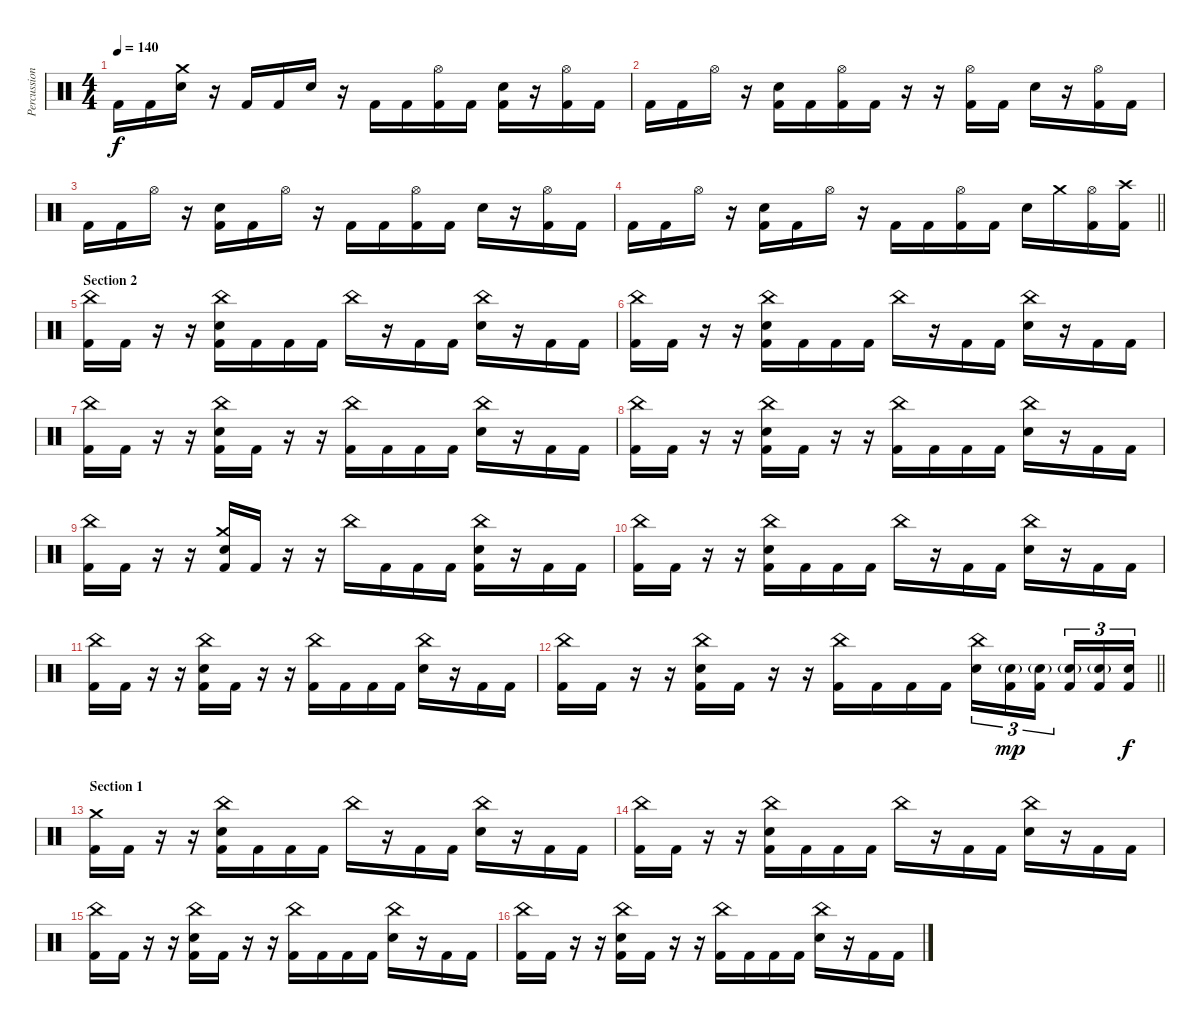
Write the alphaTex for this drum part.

\track ("Percussion" "Percussion") {instrument percussion}
\staff {score}
\articulation defaults
\ts (4 4)
\tempo 140
\clef neutral
\ks c "Kick (hit) 2".16{dy f} "Kick (hit) 2".16
("Crash medium (hit)" "Electric Snare (hit)").16 r.16 "Kick (hit) 2".16 "Kick (hit) 2".16 "Electric Snare (hit)".16 r.16 "Kick (hit) 2".16 "Kick (hit) 2".16 ("Hi-Hat (open)" "Kick (hit) 2").16 "Kick (hit) 2".16 ("Electric Snare (hit)" "Kick (hit) 2").16 r.16 ("Hi-Hat (open)" "Kick (hit) 2").16 "Kick (hit) 2".16 |
"Kick (hit) 2".16 "Kick (hit) 2".16 "Hi-Hat (open)".16 r.16 ("Electric Snare (hit)" "Kick (hit) 2").16 "Kick (hit) 2".16 ("Hi-Hat (open)" "Kick (hit) 2").16 "Kick (hit) 2".16 r.16 r.16 ("Hi-Hat (open)" "Kick (hit) 2").16 "Kick (hit) 2".16 "Electric Snare (hit)".16 r.16 ("Hi-Hat (open)" "Kick (hit) 2").16 "Kick (hit) 2".16 |
"Kick (hit) 2".16 "Kick (hit) 2".16 "Hi-Hat (open)".16 r.16 ("Electric Snare (hit)" "Kick (hit) 2").16 "Kick (hit) 2".16 "Hi-Hat (open)".16 r.16 "Kick (hit) 2".16 "Kick (hit) 2".16 ("Hi-Hat (open)" "Kick (hit) 2").16 "Kick (hit) 2".16 "Electric Snare (hit)".16 r.16 ("Hi-Hat (open)" "Kick (hit) 2").16 "Kick (hit) 2".16 |
\barLineRight lightlight "Kick (hit) 2".16 "Kick (hit) 2".16 "Hi-Hat (open)".16
r.16 ("Electric Snare (hit)" "Kick (hit) 2").16 "Kick (hit) 2".16 "Hi-Hat (open)".16 r.16 "Kick (hit) 2".16 "Kick (hit) 2".16 ("Hi-Hat (open)" "Kick (hit) 2").16 "Kick (hit) 2".16 "Electric Snare (hit)".16 "Crash medium (hit)".16 ("Hi-Hat (open)" "Kick (hit) 2").16 ("Crash high (hit)" "Kick (hit) 2").16 |
\section ("" "Section 2")
("China (hit)" "Kick (hit) 2").16 "Kick (hit) 2".16 r.16 r.16 ("China (hit)" "Electric Snare (hit)" "Kick (hit) 2").16 "Kick (hit) 2".16 "Kick (hit) 2".16 "Kick (hit) 2".16 "China (hit)".16 r.16 "Kick (hit) 2".16 "Kick (hit) 2".16 ("China (hit)" "Electric Snare (hit)").16 r.16 "Kick (hit) 2".16 "Kick (hit) 2".16 |
("China (hit)" "Kick (hit) 2").16 "Kick (hit) 2".16 r.16 r.16 ("China (hit)" "Electric Snare (hit)" "Kick (hit) 2").16 "Kick (hit) 2".16 "Kick (hit) 2".16 "Kick (hit) 2".16 "China (hit)".16 r.16 "Kick (hit) 2".16 "Kick (hit) 2".16 ("China (hit)" "Electric Snare (hit)").16 r.16 "Kick (hit) 2".16 "Kick (hit) 2".16 |
("China (hit)" "Kick (hit) 2").16 "Kick (hit) 2".16 r.16 r.16 ("China (hit)" "Electric Snare (hit)" "Kick (hit) 2").16 "Kick (hit) 2".16 r.16 r.16 ("China (hit)" "Kick (hit) 2").16 "Kick (hit) 2".16 "Kick (hit) 2".16 "Kick (hit) 2".16 ("China (hit)" "Electric Snare (hit)").16 r.16 "Kick (hit) 2".16 "Kick (hit) 2".16 |
("China (hit)" "Kick (hit) 2").16 "Kick (hit) 2".16 r.16 r.16 ("China (hit)" "Electric Snare (hit)" "Kick (hit) 2").16 "Kick (hit) 2".16 r.16 r.16 ("China (hit)" "Kick (hit) 2").16 "Kick (hit) 2".16 "Kick (hit) 2".16 "Kick (hit) 2".16 ("China (hit)" "Electric Snare (hit)").16 r.16 "Kick (hit) 2".16 "Kick (hit) 2".16 |
("China (hit)" "Kick (hit) 2").16 "Kick (hit) 2".16 r.16 r.16 ("Crash medium (hit)" "Electric Snare (hit)" "Kick (hit) 2").16 "Kick (hit) 2".16 r.16 r.16 "China (hit)".16 "Kick (hit) 2".16 "Kick (hit) 2".16 "Kick (hit) 2".16 ("China (hit)" "Electric Snare (hit)" "Kick (hit) 2").16 r.16 "Kick (hit) 2".16 "Kick (hit) 2".16 |
("China (hit)" "Kick (hit) 2").16 "Kick (hit) 2".16 r.16 r.16 ("China (hit)" "Electric Snare (hit)" "Kick (hit) 2").16 "Kick (hit) 2".16 "Kick (hit) 2".16 "Kick (hit) 2".16 "China (hit)".16 r.16 "Kick (hit) 2".16 "Kick (hit) 2".16 ("China (hit)" "Electric Snare (hit)").16 r.16 "Kick (hit) 2".16 "Kick (hit) 2".16 |
("China (hit)" "Kick (hit) 2").16 "Kick (hit) 2".16 r.16 r.16 ("China (hit)" "Electric Snare (hit)" "Kick (hit) 2").16 "Kick (hit) 2".16 r.16 r.16 ("China (hit)" "Kick (hit) 2").16 "Kick (hit) 2".16 "Kick (hit) 2".16 "Kick (hit) 2".16 ("China (hit)" "Electric Snare (hit)").16 r.16 "Kick (hit) 2".16 "Kick (hit) 2".16 |
\barLineRight lightlight
("China (hit)" "Kick (hit) 2").16 "Kick (hit) 2".16 r.16 r.16 ("China (hit)" "Electric Snare (hit)" "Kick (hit) 2").16 "Kick (hit) 2".16 r.16 r.16 ("China (hit)" "Kick (hit) 2").16 "Kick (hit) 2".16 "Kick (hit) 2".16 "Kick (hit) 2".16 ("China (hit)" "Electric Snare (hit)").16{tu (3 2)} ("Electric Snare (hit)"{g} "Kick (hit) 2").16{tu (3 2) dy mp} ("Electric Snare (hit)"{g} "Kick (hit) 2").16{tu (3 2) beam splitsecondary} ("Electric Snare (hit)"{g} "Kick (hit) 2").16{tu (3 2)} ("Electric Snare (hit)"{g} "Kick (hit) 2").16{tu (3 2)} ("Electric Snare (hit)" "Kick (hit) 2").16{tu (3 2) dy f} |
\section ("" "Section 1")
("Crash medium (hit)" "Kick (hit) 2").16 "Kick (hit) 2".16 r.16 r.16 ("China (hit)" "Electric Snare (hit)" "Kick (hit) 2").16 "Kick (hit) 2".16 "Kick (hit) 2".16 "Kick (hit) 2".16 "China (hit)".16 r.16 "Kick (hit) 2".16 "Kick (hit) 2".16 ("China (hit)" "Electric Snare (hit)").16 r.16 "Kick (hit) 2".16 "Kick (hit) 2".16 |
("China (hit)" "Kick (hit) 2").16 "Kick (hit) 2".16 r.16 r.16 ("China (hit)" "Electric Snare (hit)" "Kick (hit) 2").16 "Kick (hit) 2".16 "Kick (hit) 2".16 "Kick (hit) 2".16 "China (hit)".16 r.16 "Kick (hit) 2".16 "Kick (hit) 2".16 ("China (hit)" "Electric Snare (hit)").16 r.16 "Kick (hit) 2".16 "Kick (hit) 2".16 |
("China (hit)" "Kick (hit) 2").16 "Kick (hit) 2".16 r.16 r.16 ("China (hit)" "Electric Snare (hit)" "Kick (hit) 2").16 "Kick (hit) 2".16 r.16 r.16 ("China (hit)" "Kick (hit) 2").16 "Kick (hit) 2".16 "Kick (hit) 2".16 "Kick (hit) 2".16 ("China (hit)" "Electric Snare (hit)").16 r.16 "Kick (hit) 2".16 "Kick (hit) 2".16 |
("China (hit)" "Kick (hit) 2").16 "Kick (hit) 2".16 r.16 r.16 ("China (hit)" "Electric Snare (hit)" "Kick (hit) 2").16 "Kick (hit) 2".16 r.16 r.16 ("China (hit)" "Kick (hit) 2").16 "Kick (hit) 2".16 "Kick (hit) 2".16 "Kick (hit) 2".16 ("China (hit)" "Electric Snare (hit)").16 r.16 "Kick (hit) 2".16 "Kick (hit) 2".16
